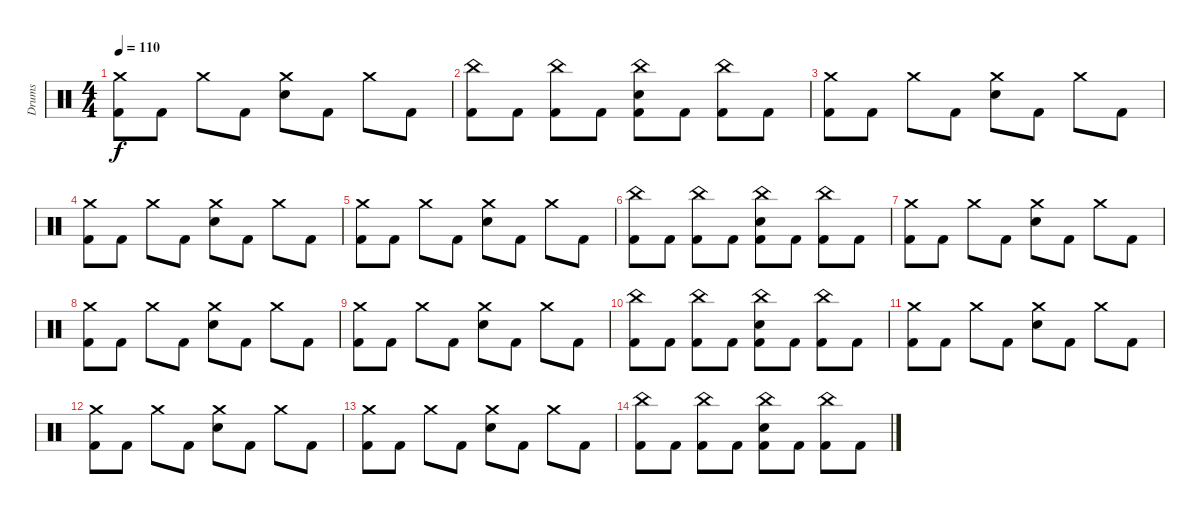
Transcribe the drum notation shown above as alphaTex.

\track ("Drums" "Drums") {instrument percussion}
\staff {score}
\articulation defaults
\ts (4 4)
\tempo 110
\clef neutral
\ks c
("Crash medium (hit)" "Kick (hit) 2").8{dy f} "Kick (hit) 2".8 "Crash medium (hit)".8 "Kick (hit) 2".8 ("Crash medium (hit)" "Snare (hit) 2").8 "Kick (hit) 2".8 "Crash medium (hit)".8 "Kick (hit) 2".8 |
("China (hit)" "Kick (hit) 2").8 "Kick (hit) 2".8 ("China (hit)" "Kick (hit) 2").8 "Kick (hit) 2".8 ("China (hit)" "Snare (hit) 2" "Kick (hit) 2").8 "Kick (hit) 2".8 ("China (hit)" "Kick (hit) 2").8 "Kick (hit) 2".8 |
("Crash medium (hit)" "Kick (hit) 2").8 "Kick (hit) 2".8 "Crash medium (hit)".8 "Kick (hit) 2".8 ("Crash medium (hit)" "Snare (hit) 2").8 "Kick (hit) 2".8 "Crash medium (hit)".8 "Kick (hit) 2".8 |
("Crash medium (hit)" "Kick (hit) 2").8 "Kick (hit) 2".8 "Crash medium (hit)".8 "Kick (hit) 2".8 ("Crash medium (hit)" "Snare (hit) 2").8 "Kick (hit) 2".8 "Crash medium (hit)".8 "Kick (hit) 2".8 |
("Crash medium (hit)" "Kick (hit) 2").8 "Kick (hit) 2".8 "Crash medium (hit)".8 "Kick (hit) 2".8 ("Crash medium (hit)" "Snare (hit) 2").8 "Kick (hit) 2".8 "Crash medium (hit)".8 "Kick (hit) 2".8 |
("China (hit)" "Kick (hit) 2").8 "Kick (hit) 2".8 ("China (hit)" "Kick (hit) 2").8 "Kick (hit) 2".8 ("China (hit)" "Snare (hit) 2" "Kick (hit) 2").8 "Kick (hit) 2".8 ("China (hit)" "Kick (hit) 2").8 "Kick (hit) 2".8 |
("Crash medium (hit)" "Kick (hit) 2").8 "Kick (hit) 2".8 "Crash medium (hit)".8 "Kick (hit) 2".8 ("Crash medium (hit)" "Snare (hit) 2").8 "Kick (hit) 2".8 "Crash medium (hit)".8 "Kick (hit) 2".8 |
("Crash medium (hit)" "Kick (hit) 2").8 "Kick (hit) 2".8 "Crash medium (hit)".8 "Kick (hit) 2".8 ("Crash medium (hit)" "Snare (hit) 2").8 "Kick (hit) 2".8 "Crash medium (hit)".8 "Kick (hit) 2".8 |
("Crash medium (hit)" "Kick (hit) 2").8 "Kick (hit) 2".8 "Crash medium (hit)".8 "Kick (hit) 2".8 ("Crash medium (hit)" "Snare (hit) 2").8 "Kick (hit) 2".8 "Crash medium (hit)".8 "Kick (hit) 2".8 |
("China (hit)" "Kick (hit) 2").8 "Kick (hit) 2".8 ("China (hit)" "Kick (hit) 2").8 "Kick (hit) 2".8 ("China (hit)" "Snare (hit) 2" "Kick (hit) 2").8 "Kick (hit) 2".8 ("China (hit)" "Kick (hit) 2").8 "Kick (hit) 2".8 |
("Crash medium (hit)" "Kick (hit) 2").8 "Kick (hit) 2".8 "Crash medium (hit)".8 "Kick (hit) 2".8 ("Crash medium (hit)" "Snare (hit) 2").8 "Kick (hit) 2".8 "Crash medium (hit)".8 "Kick (hit) 2".8 |
("Crash medium (hit)" "Kick (hit) 2").8 "Kick (hit) 2".8 "Crash medium (hit)".8 "Kick (hit) 2".8 ("Crash medium (hit)" "Snare (hit) 2").8 "Kick (hit) 2".8 "Crash medium (hit)".8 "Kick (hit) 2".8 |
("Crash medium (hit)" "Kick (hit) 2").8 "Kick (hit) 2".8 "Crash medium (hit)".8 "Kick (hit) 2".8 ("Crash medium (hit)" "Snare (hit) 2").8 "Kick (hit) 2".8 "Crash medium (hit)".8 "Kick (hit) 2".8 |
("China (hit)" "Kick (hit) 2").8 "Kick (hit) 2".8 ("China (hit)" "Kick (hit) 2").8 "Kick (hit) 2".8 ("China (hit)" "Snare (hit) 2" "Kick (hit) 2").8 "Kick (hit) 2".8 ("China (hit)" "Kick (hit) 2").8 "Kick (hit) 2".8
